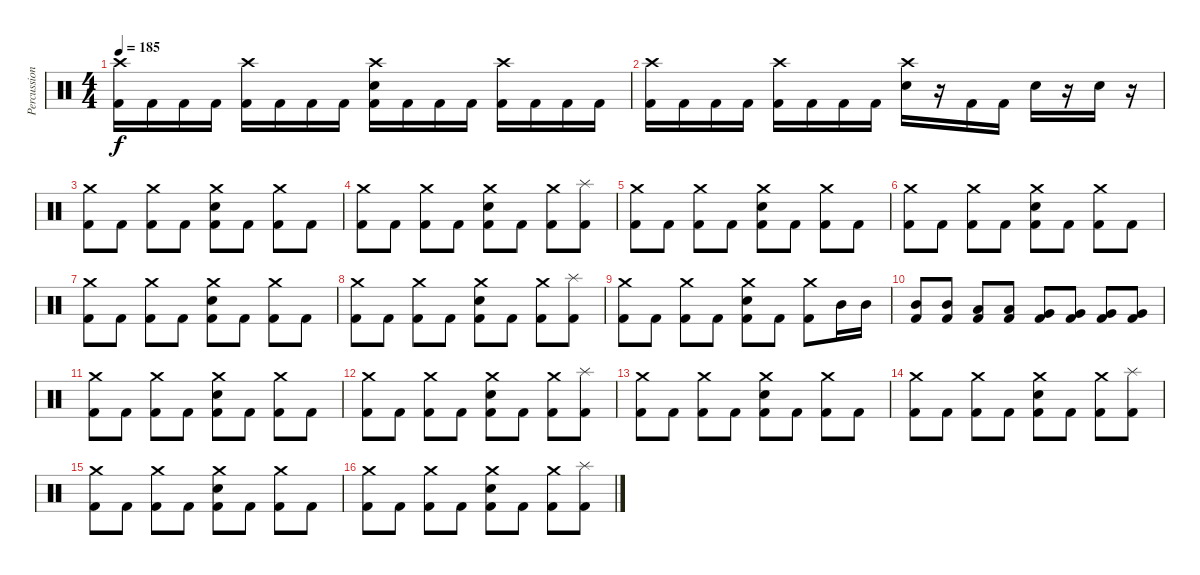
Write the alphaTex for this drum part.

\track ("Percussion" "Percussion") {instrument percussion}
\staff {score}
\articulation defaults
\ts (4 4)
\tempo 185
\clef neutral
\ks c
("Crash high (hit)" "Kick (hit) 2").16{dy f} "Kick (hit) 2".16 "Kick (hit) 2".16 "Kick (hit) 2".16 ("Crash high (hit)" "Kick (hit) 2").16 "Kick (hit) 2".16 "Kick (hit) 2".16 "Kick (hit) 2".16 ("Crash high (hit)" "Snare (hit) 2" "Kick (hit) 2").16 "Kick (hit) 2".16 "Kick (hit) 2".16 "Kick (hit) 2".16 ("Crash high (hit)" "Kick (hit) 2").16 "Kick (hit) 2".16 "Kick (hit) 2".16 "Kick (hit) 2".16 |
("Crash high (hit)" "Kick (hit) 2").16 "Kick (hit) 2".16 "Kick (hit) 2".16 "Kick (hit) 2".16 ("Crash high (hit)" "Kick (hit) 2").16 "Kick (hit) 2".16 "Kick (hit) 2".16 "Kick (hit) 2".16 ("Crash high (hit)" "Snare (hit) 2").16 r.16 "Kick (hit) 2".16 "Kick (hit) 2".16 "Snare (hit) 2".16 r.16 "Snare (hit) 2".16 r.16 |
("Crash medium (hit)" "Kick (hit) 2").8 "Kick (hit) 2".8 ("Crash medium (hit)" "Kick (hit) 2").8 "Kick (hit) 2".8 ("Crash medium (hit)" "Snare (hit) 2" "Kick (hit) 2").8 "Kick (hit) 2".8 ("Crash medium (hit)" "Kick (hit) 2").8 "Kick (hit) 2".8 |
("Crash medium (hit)" "Kick (hit) 2").8 "Kick (hit) 2".8 ("Crash medium (hit)" "Kick (hit) 2").8 "Kick (hit) 2".8 ("Crash medium (hit)" "Snare (hit) 2" "Kick (hit) 2").8 "Kick (hit) 2".8 ("Crash medium (hit)" "Kick (hit) 2").8 ("Splash (hit)" "Kick (hit) 2").8 |
("Crash medium (hit)" "Kick (hit) 2").8 "Kick (hit) 2".8 ("Crash medium (hit)" "Kick (hit) 2").8 "Kick (hit) 2".8 ("Crash medium (hit)" "Snare (hit) 2" "Kick (hit) 2").8 "Kick (hit) 2".8 ("Crash medium (hit)" "Kick (hit) 2").8 "Kick (hit) 2".8 |
("Crash medium (hit)" "Kick (hit) 2").8 "Kick (hit) 2".8 ("Crash medium (hit)" "Kick (hit) 2").8 "Kick (hit) 2".8 ("Crash medium (hit)" "Snare (hit) 2" "Kick (hit) 2").8 "Kick (hit) 2".8 ("Crash medium (hit)" "Kick (hit) 2").8 "Kick (hit) 2".8 |
("Crash medium (hit)" "Kick (hit) 2").8 "Kick (hit) 2".8 ("Crash medium (hit)" "Kick (hit) 2").8 "Kick (hit) 2".8 ("Crash medium (hit)" "Snare (hit) 2" "Kick (hit) 2").8 "Kick (hit) 2".8 ("Crash medium (hit)" "Kick (hit) 2").8 "Kick (hit) 2".8 |
("Crash medium (hit)" "Kick (hit) 2").8 "Kick (hit) 2".8 ("Crash medium (hit)" "Kick (hit) 2").8 "Kick (hit) 2".8 ("Crash medium (hit)" "Snare (hit) 2" "Kick (hit) 2").8 "Kick (hit) 2".8 ("Crash medium (hit)" "Kick (hit) 2").8 ("Splash (hit)" "Kick (hit) 2").8 |
("Crash medium (hit)" "Kick (hit) 2").8 "Kick (hit) 2".8 ("Crash medium (hit)" "Kick (hit) 2").8 "Kick (hit) 2".8 ("Crash medium (hit)" "Snare (hit) 2" "Kick (hit) 2").8 "Kick (hit) 2".8 ("Crash medium (hit)" "Kick (hit) 2").8 "Mid Tom (hit)".16 "Mid Tom (hit)".16 |
("Mid Tom (hit)" "Kick (hit) 2").8 ("Mid Tom (hit)" "Kick (hit) 2").8 ("Low Tom (hit)" "Kick (hit) 2").8 ("Low Tom (hit)" "Kick (hit) 2").8 ("Very Low Tom (hit)" "Kick (hit) 2").8 ("Very Low Tom (hit)" "Kick (hit) 2").8 ("Very Low Tom (hit)" "Kick (hit) 2").8 ("Very Low Tom (hit)" "Kick (hit) 2").8 |
("Crash medium (hit)" "Kick (hit) 2").8 "Kick (hit) 2".8 ("Crash medium (hit)" "Kick (hit) 2").8 "Kick (hit) 2".8 ("Crash medium (hit)" "Snare (hit) 2" "Kick (hit) 2").8 "Kick (hit) 2".8 ("Crash medium (hit)" "Kick (hit) 2").8 "Kick (hit) 2".8 |
("Crash medium (hit)" "Kick (hit) 2").8 "Kick (hit) 2".8 ("Crash medium (hit)" "Kick (hit) 2").8 "Kick (hit) 2".8 ("Crash medium (hit)" "Snare (hit) 2" "Kick (hit) 2").8 "Kick (hit) 2".8 ("Crash medium (hit)" "Kick (hit) 2").8 ("Splash (hit)" "Kick (hit) 2").8 |
("Crash medium (hit)" "Kick (hit) 2").8 "Kick (hit) 2".8 ("Crash medium (hit)" "Kick (hit) 2").8 "Kick (hit) 2".8 ("Crash medium (hit)" "Snare (hit) 2" "Kick (hit) 2").8 "Kick (hit) 2".8 ("Crash medium (hit)" "Kick (hit) 2").8 "Kick (hit) 2".8 |
("Crash medium (hit)" "Kick (hit) 2").8 "Kick (hit) 2".8 ("Crash medium (hit)" "Kick (hit) 2").8 "Kick (hit) 2".8 ("Crash medium (hit)" "Snare (hit) 2" "Kick (hit) 2").8 "Kick (hit) 2".8 ("Crash medium (hit)" "Kick (hit) 2").8 ("Splash (hit)" "Kick (hit) 2").8 |
("Crash medium (hit)" "Kick (hit) 2").8 "Kick (hit) 2".8 ("Crash medium (hit)" "Kick (hit) 2").8 "Kick (hit) 2".8 ("Crash medium (hit)" "Snare (hit) 2" "Kick (hit) 2").8 "Kick (hit) 2".8 ("Crash medium (hit)" "Kick (hit) 2").8 "Kick (hit) 2".8 |
("Crash medium (hit)" "Kick (hit) 2").8 "Kick (hit) 2".8 ("Crash medium (hit)" "Kick (hit) 2").8 "Kick (hit) 2".8 ("Crash medium (hit)" "Snare (hit) 2" "Kick (hit) 2").8 "Kick (hit) 2".8 ("Crash medium (hit)" "Kick (hit) 2").8 ("Splash (hit)" "Kick (hit) 2").8
